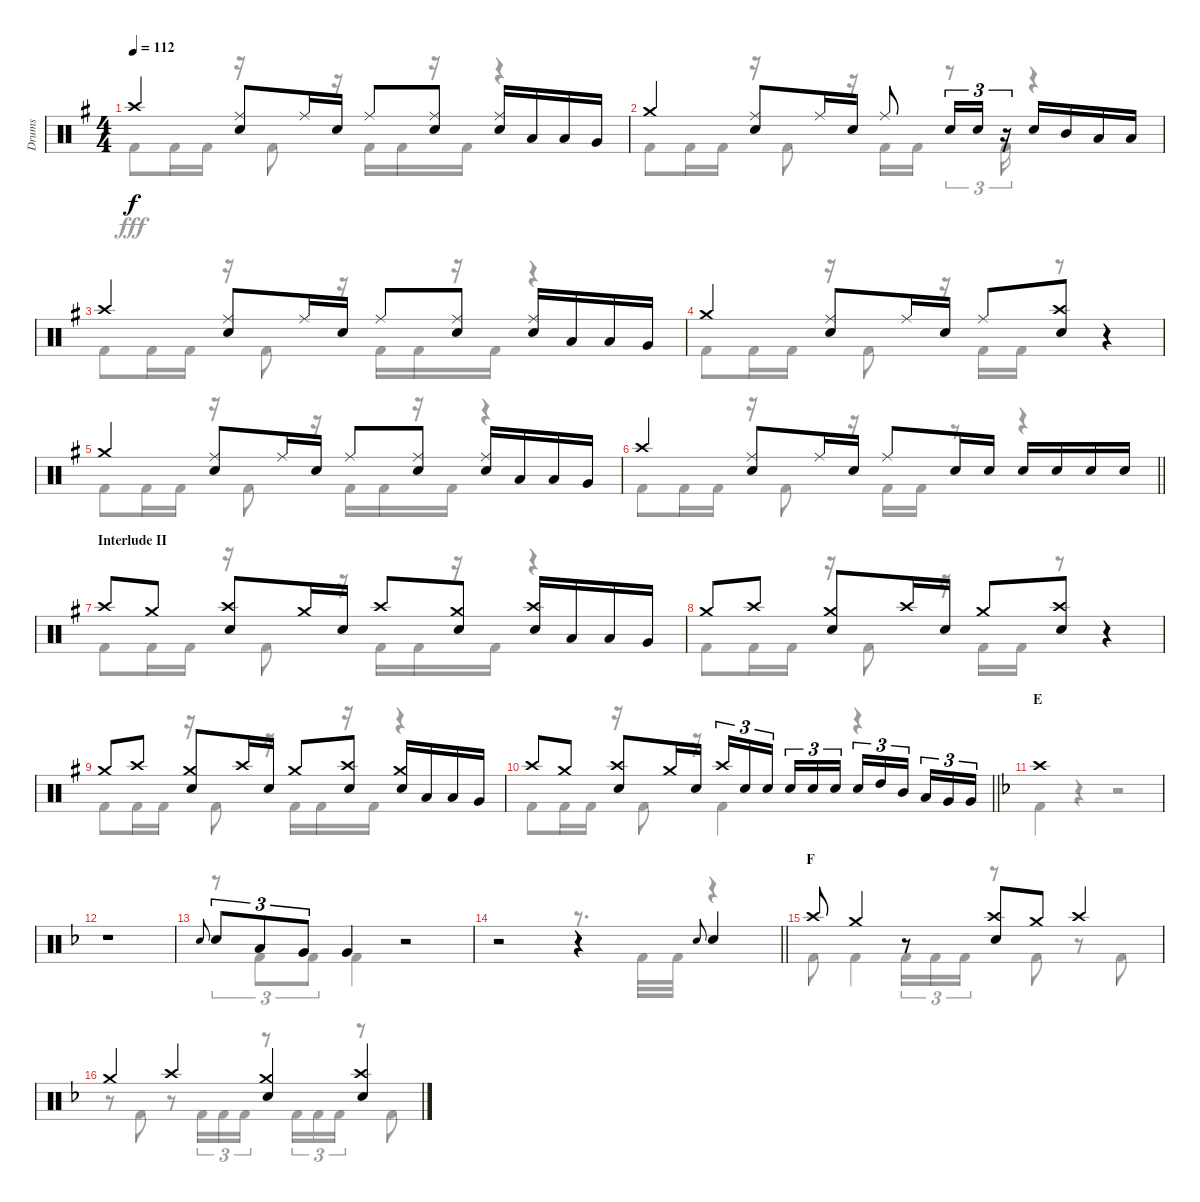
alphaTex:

\track ("Drums" "Drums") {instrument percussion}
\staff {score}
\articulation defaults
\voice
\ts (4 4)
\tempo 112
\clef neutral
\ks g "Crash high (hit)".4{dy f}
("Ride (middle)" "Snare (hit) 2").8 "Ride (middle)".16 "Snare (hit) 2".16 "Ride (middle)".8 ("Ride (middle)" "Snare (hit) 2").8 ("Ride (middle)" "Snare (hit) 2").16 "Low Tom (hit)".16 "Low Tom (hit)".16 "Very Low Tom (hit)".16 |
"Crash medium (hit)".4 ("Ride (middle)" "Snare (hit) 2").8 "Ride (middle)".16 "Snare (hit) 2".16 "Ride (middle)".8 "Snare (hit) 2".16{tu (3 2)} "Snare (hit) 2".16{tu (3 2)} r.16{tu (3 2)} "Snare (hit) 2".16 "Mid Tom (hit)".16 "Low Tom (hit)".16 "Low Tom (hit)".16 |
"Crash high (hit)".4 ("Ride (middle)" "Snare (hit) 2").8 "Ride (middle)".16 "Snare (hit) 2".16 "Ride (middle)".8 ("Ride (middle)" "Snare (hit) 2").8 ("Ride (middle)" "Snare (hit) 2").16 "Low Tom (hit)".16 "Low Tom (hit)".16 "Very Low Tom (hit)".16 |
"Crash medium (hit)".4 ("Ride (middle)" "Snare (hit) 2").8 "Ride (middle)".16 "Snare (hit) 2".16 "Ride (middle)".8 ("Crash high (hit)" "Snare (hit) 2").8 r.4 |
"Crash medium (hit)".4 ("Ride (middle)" "Snare (hit) 2").8 "Ride (middle)".16 "Snare (hit) 2".16 "Ride (middle)".8 ("Ride (middle)" "Snare (hit) 2").8 ("Ride (middle)" "Snare (hit) 2").16 "Low Tom (hit)".16 "Low Tom (hit)".16 "Very Low Tom (hit)".16 |
\barLineRight lightlight "Crash high (hit)".4
("Ride (middle)" "Snare (hit) 2").8 "Ride (middle)".16 "Snare (hit) 2".16 "Ride (middle)".8 "Snare (hit) 2".16 "Snare (hit) 2".16 "Snare (hit) 2".16 "Snare (hit) 2".16 "Snare (hit) 2".16 "Snare (hit) 2".16 |
\section ("" "Interlude II")
"Crash high (hit)".8 "Crash medium (hit)".8 ("Crash high (hit)" "Snare (hit) 2").8 "Crash medium (hit)".16 "Snare (hit) 2".16 "Crash high (hit)".8 ("Crash medium (hit)" "Snare (hit) 2").8 ("Crash high (hit)" "Snare (hit) 2").16 "Low Tom (hit)".16 "Low Tom (hit)".16 "Very Low Tom (hit)".16 |
"Crash medium (hit)".8 "Crash high (hit)".8 ("Crash medium (hit)" "Snare (hit) 2").8 "Crash high (hit)".16 "Snare (hit) 2".16 "Crash medium (hit)".8 ("Crash high (hit)" "Snare (hit) 2").8 r.4 |
"Crash medium (hit)".8 "Crash high (hit)".8 ("Crash medium (hit)" "Snare (hit) 2").8 "Crash high (hit)".16 "Snare (hit) 2".16 "Crash medium (hit)".8 ("Crash high (hit)" "Snare (hit) 2").8 ("Crash medium (hit)" "Snare (hit) 2").16 "Low Tom (hit)".16 "Low Tom (hit)".16 "Very Low Tom (hit)".16 |
\barLineRight lightlight "Crash high (hit)".8 "Crash medium (hit)".8
("Crash high (hit)" "Snare (hit) 2").8 "Crash medium (hit)".16 "Snare (hit) 2".16 "Crash high (hit)".16{tu (3 2)} "Snare (hit) 2".16{tu (3 2)} "Snare (hit) 2".16{tu (3 2) beam splitsecondary} "Snare (hit) 2".16{tu (3 2)} "Snare (hit) 2".16{tu (3 2)} "Snare (hit) 2".16{tu (3 2)} "Snare (hit) 2".16{tu (3 2)} "High Tom (hit)".16{tu (3 2)} "Mid Tom (hit)".16{tu (3 2) beam splitsecondary} "Low Tom (hit)".16{tu (3 2)} "Very Low Tom (hit)".16{tu (3 2)} "Very Low Tom (hit)".16{tu (3 2)} |
\section ("" "E")
\ks f "Crash high (hit)".1
|
r.1 |
"Snare (hit) 2".8{gr onbeat} "Snare (hit) 2".8{tu (3 2)} "Low Tom (hit)".8{tu (3 2)} "Very Low Tom (hit)".8{tu (3 2)} "Very Low Tom (hit)".4 r.2 |
\barLineRight lightlight
r.2 r.4 "Snare (hit) 2".8{gr onbeat} "Snare (hit) 2".4 |
\section ("" "F")
"Crash high (hit)".8 "Crash medium (hit)".4 r.8 ("Crash high (hit)" "Snare (hit) 2").8 "Crash medium (hit)".8 "Crash high (hit)".4 |
"Crash medium (hit)".4 "Crash high (hit)".4 ("Crash medium (hit)" "Snare (hit) 2").4 ("Crash high (hit)" "Snare (hit) 2").4
\voice
\clef neutral
\ottava regular
\simile none
\ks g "Kick (hit) 2".8{dy fff} "Kick (hit) 2".16 "Kick (hit) 2".16
r.16 "Kick (hit) 2".8 r.16 "Kick (hit) 2".16 "Kick (hit) 2".16 r.16 "Kick (hit) 2".16 r.4 |
"Kick (hit) 2".8 "Kick (hit) 2".16 "Kick (hit) 2".16 r.16 "Kick (hit) 2".8 r.16 "Kick (hit) 2".16 "Kick (hit) 2".16 r.8{tu (3 2)} "Kick (hit) 2".16{tu (3 2)} r.4 |
"Kick (hit) 2".8 "Kick (hit) 2".16 "Kick (hit) 2".16 r.16 "Kick (hit) 2".8 r.16 "Kick (hit) 2".16 "Kick (hit) 2".16 r.16 "Kick (hit) 2".16 r.4 |
"Kick (hit) 2".8 "Kick (hit) 2".16 "Kick (hit) 2".16 r.16 "Kick (hit) 2".8 r.16 "Kick (hit) 2".16 "Kick (hit) 2".16 r.8 r.4 |
"Kick (hit) 2".8 "Kick (hit) 2".16 "Kick (hit) 2".16 r.16 "Kick (hit) 2".8 r.16 "Kick (hit) 2".16 "Kick (hit) 2".16 r.16 "Kick (hit) 2".16 r.4 |
\barLineRight lightlight "Kick (hit) 2".8 "Kick (hit) 2".16 "Kick (hit) 2".16
r.16 "Kick (hit) 2".8 r.16 "Kick (hit) 2".16 "Kick (hit) 2".16 r.8 r.4 |
"Kick (hit) 2".8 "Kick (hit) 2".16 "Kick (hit) 2".16 r.16 "Kick (hit) 2".8 r.16 "Kick (hit) 2".16 "Kick (hit) 2".16 r.16 "Kick (hit) 2".16 r.4 |
"Kick (hit) 2".8 "Kick (hit) 2".16 "Kick (hit) 2".16 r.16 "Kick (hit) 2".8 r.16 "Kick (hit) 2".16 "Kick (hit) 2".16 r.8 r.4 |
"Kick (hit) 2".8 "Kick (hit) 2".16 "Kick (hit) 2".16 r.16 "Kick (hit) 2".8 r.16 "Kick (hit) 2".16 "Kick (hit) 2".16 r.16 "Kick (hit) 2".16 r.4 |
\barLineRight lightlight "Kick (hit) 2".8 "Kick (hit) 2".16 "Kick (hit) 2".16
r.16 "Kick (hit) 2".8 r.16 "Kick (hit) 2".4 r.4 |
\ks f "Kick (hit) 2".4
r.4 r.2 |
|
r.8{tu (3 2)} "Kick (hit) 2".8{tu (3 2)} "Kick (hit) 2".8{tu (3 2)} "Kick (hit) 2".4 r.2 |
\barLineRight lightlight
r.2 r.8{d} "Kick (hit) 2".32 "Kick (hit) 2".32 r.4 |
"Kick (hit) 2".8 "Kick (hit) 2".4 "Kick (hit) 2".16{tu (3 2)} "Kick (hit) 2".16{tu (3 2)} "Kick (hit) 2".16{tu (3 2)} r.8 "Kick (hit) 2".8 r.8 "Kick (hit) 2".8 |
r.8 "Kick (hit) 2".8 r.8 "Kick (hit) 2".16{tu (3 2)} "Kick (hit) 2".16{tu (3 2)} "Kick (hit) 2".16{tu (3 2)} r.8 "Kick (hit) 2".16{tu (3 2)} "Kick (hit) 2".16{tu (3 2)} "Kick (hit) 2".16{tu (3 2)} r.8 "Kick (hit) 2".8
